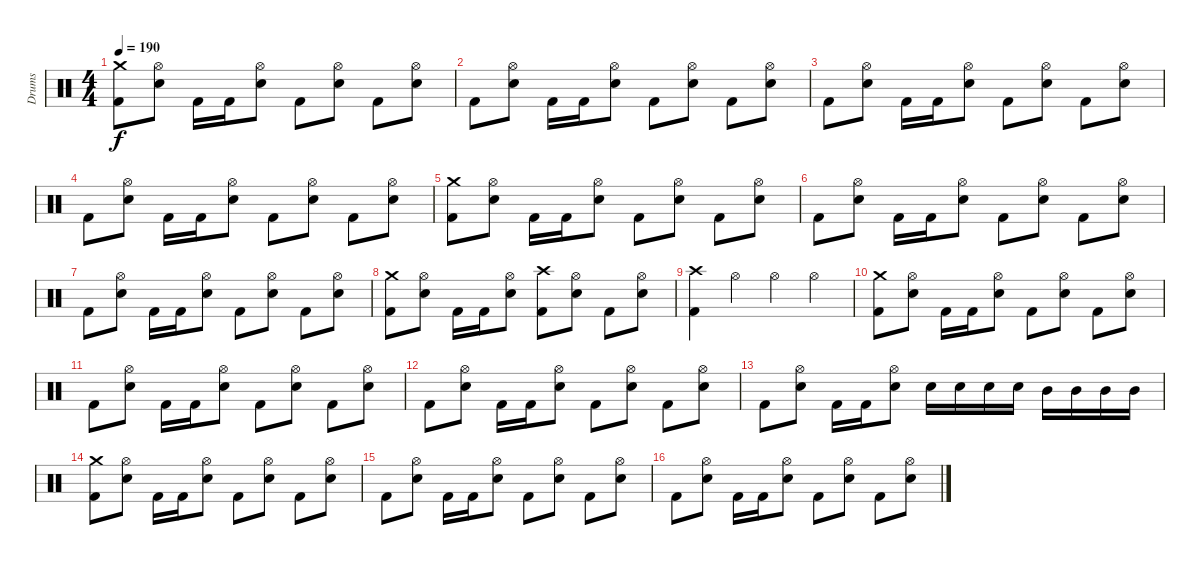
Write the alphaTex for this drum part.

\track ("Drums" "Drums") {instrument percussion}
\staff {score}
\articulation defaults
\ts (4 4)
\tempo 190
\clef neutral
\ks c
("Crash medium (hit)" "Kick (hit) 2").8{dy f} ("Hi-Hat (open)" "Electric Snare (hit)").8 "Kick (hit) 2".16 "Kick (hit) 2".16 ("Hi-Hat (open)" "Electric Snare (hit)").8 "Kick (hit) 2".8 ("Hi-Hat (open)" "Electric Snare (hit)").8 "Kick (hit) 2".8 ("Hi-Hat (open)" "Electric Snare (hit)").8 |
"Kick (hit) 2".8 ("Hi-Hat (open)" "Electric Snare (hit)").8 "Kick (hit) 2".16 "Kick (hit) 2".16 ("Hi-Hat (open)" "Electric Snare (hit)").8 "Kick (hit) 2".8 ("Hi-Hat (open)" "Electric Snare (hit)").8 "Kick (hit) 2".8 ("Hi-Hat (open)" "Electric Snare (hit)").8 |
"Kick (hit) 2".8 ("Hi-Hat (open)" "Electric Snare (hit)").8 "Kick (hit) 2".16 "Kick (hit) 2".16 ("Hi-Hat (open)" "Electric Snare (hit)").8 "Kick (hit) 2".8 ("Hi-Hat (open)" "Electric Snare (hit)").8 "Kick (hit) 2".8 ("Hi-Hat (open)" "Electric Snare (hit)").8 |
"Kick (hit) 2".8 ("Hi-Hat (open)" "Electric Snare (hit)").8 "Kick (hit) 2".16 "Kick (hit) 2".16 ("Hi-Hat (open)" "Electric Snare (hit)").8 "Kick (hit) 2".8 ("Hi-Hat (open)" "Electric Snare (hit)").8 "Kick (hit) 2".8 ("Hi-Hat (open)" "Electric Snare (hit)").8 |
("Crash medium (hit)" "Kick (hit) 2").8 ("Hi-Hat (open)" "Electric Snare (hit)").8 "Kick (hit) 2".16 "Kick (hit) 2".16 ("Hi-Hat (open)" "Electric Snare (hit)").8 "Kick (hit) 2".8 ("Hi-Hat (open)" "Electric Snare (hit)").8 "Kick (hit) 2".8 ("Hi-Hat (open)" "Electric Snare (hit)").8 |
"Kick (hit) 2".8 ("Hi-Hat (open)" "Electric Snare (hit)").8 "Kick (hit) 2".16 "Kick (hit) 2".16 ("Hi-Hat (open)" "Electric Snare (hit)").8 "Kick (hit) 2".8 ("Hi-Hat (open)" "Electric Snare (hit)").8 "Kick (hit) 2".8 ("Hi-Hat (open)" "Electric Snare (hit)").8 |
"Kick (hit) 2".8 ("Hi-Hat (open)" "Electric Snare (hit)").8 "Kick (hit) 2".16 "Kick (hit) 2".16 ("Hi-Hat (open)" "Electric Snare (hit)").8 "Kick (hit) 2".8 ("Hi-Hat (open)" "Electric Snare (hit)").8 "Kick (hit) 2".8 ("Hi-Hat (open)" "Electric Snare (hit)").8 |
("Crash medium (hit)" "Kick (hit) 2").8 ("Hi-Hat (open)" "Electric Snare (hit)").8 "Kick (hit) 2".16 "Kick (hit) 2".16 ("Hi-Hat (open)" "Electric Snare (hit)").8 ("Crash high (hit)" "Kick (hit) 2").8 ("Hi-Hat (open)" "Electric Snare (hit)").8 "Kick (hit) 2".8 ("Hi-Hat (open)" "Electric Snare (hit)").8 |
("Crash high (hit)" "Kick (hit) 2").4 "Hi-Hat (open)".4 "Hi-Hat (open)".4 "Hi-Hat (open)".4 |
("Crash medium (hit)" "Kick (hit) 2").8 ("Hi-Hat (open)" "Electric Snare (hit)").8 "Kick (hit) 2".16 "Kick (hit) 2".16 ("Hi-Hat (open)" "Electric Snare (hit)").8 "Kick (hit) 2".8 ("Hi-Hat (open)" "Electric Snare (hit)").8 "Kick (hit) 2".8 ("Hi-Hat (open)" "Electric Snare (hit)").8 |
"Kick (hit) 2".8 ("Hi-Hat (open)" "Electric Snare (hit)").8 "Kick (hit) 2".16 "Kick (hit) 2".16 ("Hi-Hat (open)" "Electric Snare (hit)").8 "Kick (hit) 2".8 ("Hi-Hat (open)" "Electric Snare (hit)").8 "Kick (hit) 2".8 ("Hi-Hat (open)" "Electric Snare (hit)").8 |
"Kick (hit) 2".8 ("Hi-Hat (open)" "Electric Snare (hit)").8 "Kick (hit) 2".16 "Kick (hit) 2".16 ("Hi-Hat (open)" "Electric Snare (hit)").8 "Kick (hit) 2".8 ("Hi-Hat (open)" "Electric Snare (hit)").8 "Kick (hit) 2".8 ("Hi-Hat (open)" "Electric Snare (hit)").8 |
"Kick (hit) 2".8 ("Hi-Hat (open)" "Electric Snare (hit)").8 "Kick (hit) 2".16 "Kick (hit) 2".16 ("Hi-Hat (open)" "Electric Snare (hit)").8 "Electric Snare (hit)".16 "Electric Snare (hit)".16 "Electric Snare (hit)".16 "Electric Snare (hit)".16 "Mid Tom (hit)".16 "Mid Tom (hit)".16 "Mid Tom (hit)".16 "Mid Tom (hit)".16 |
("Crash medium (hit)" "Kick (hit) 2").8 ("Hi-Hat (open)" "Electric Snare (hit)").8 "Kick (hit) 2".16 "Kick (hit) 2".16 ("Hi-Hat (open)" "Electric Snare (hit)").8 "Kick (hit) 2".8 ("Hi-Hat (open)" "Electric Snare (hit)").8 "Kick (hit) 2".8 ("Hi-Hat (open)" "Electric Snare (hit)").8 |
"Kick (hit) 2".8 ("Hi-Hat (open)" "Electric Snare (hit)").8 "Kick (hit) 2".16 "Kick (hit) 2".16 ("Hi-Hat (open)" "Electric Snare (hit)").8 "Kick (hit) 2".8 ("Hi-Hat (open)" "Electric Snare (hit)").8 "Kick (hit) 2".8 ("Hi-Hat (open)" "Electric Snare (hit)").8 |
"Kick (hit) 2".8 ("Hi-Hat (open)" "Electric Snare (hit)").8 "Kick (hit) 2".16 "Kick (hit) 2".16 ("Hi-Hat (open)" "Electric Snare (hit)").8 "Kick (hit) 2".8 ("Hi-Hat (open)" "Electric Snare (hit)").8 "Kick (hit) 2".8 ("Hi-Hat (open)" "Electric Snare (hit)").8
